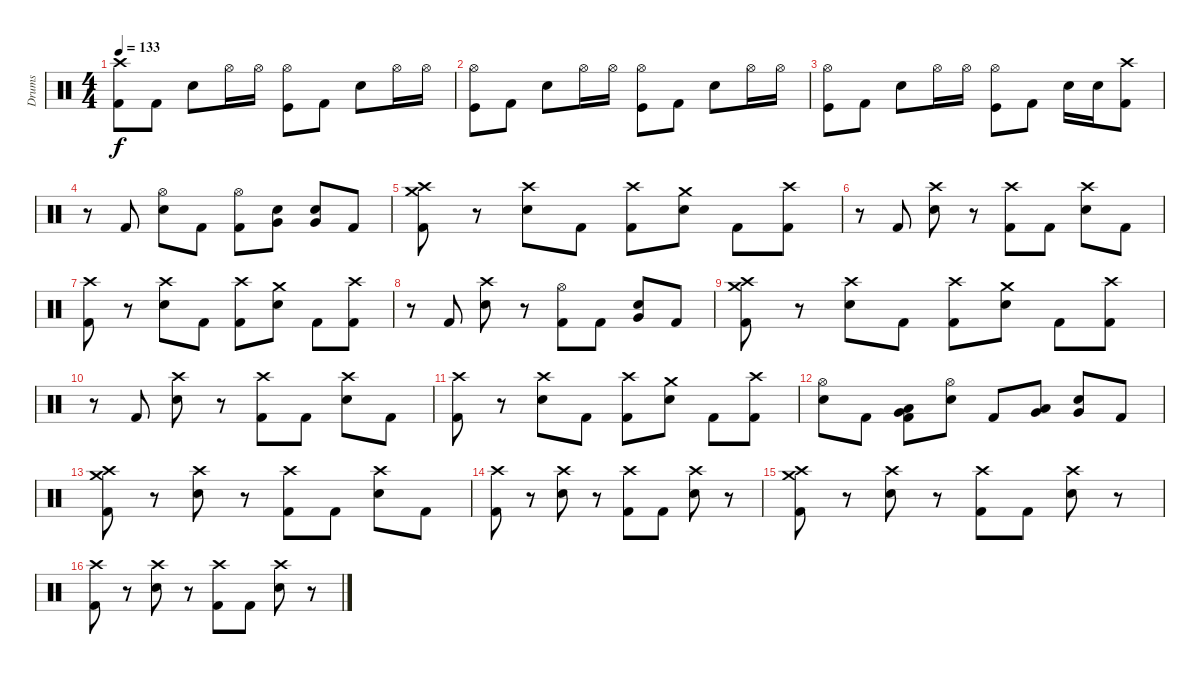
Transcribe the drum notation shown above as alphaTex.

\track ("Drums" "Drums") {instrument percussion}
\staff {score}
\articulation defaults
\ts (4 4)
\tempo 133
\clef neutral
\ks c
("Crash high (hit)" "Kick (hit) 2").8{dy f} "Kick (hit) 2".8 "Electric Snare (hit)".8 "Hi-Hat (open)".16 "Hi-Hat (open)".16 ("Hi-Hat (open)" "Kick (hit)").8 "Kick (hit) 2".8 "Electric Snare (hit)".8 "Hi-Hat (open)".16 "Hi-Hat (open)".16 |
("Hi-Hat (open)" "Kick (hit)").8 "Kick (hit) 2".8 "Electric Snare (hit)".8 "Hi-Hat (open)".16 "Hi-Hat (open)".16 ("Hi-Hat (open)" "Kick (hit)").8 "Kick (hit) 2".8 "Electric Snare (hit)".8 "Hi-Hat (open)".16 "Hi-Hat (open)".16 |
("Hi-Hat (open)" "Kick (hit)").8 "Kick (hit) 2".8 "Electric Snare (hit)".8 "Hi-Hat (open)".16 "Hi-Hat (open)".16 ("Hi-Hat (open)" "Kick (hit)").8 "Kick (hit) 2".8 "Electric Snare (hit)".16 "Electric Snare (hit)".16 ("Crash high (hit)" "Kick (hit) 2").8 |
r.8 "Kick (hit) 2".8 ("Hi-Hat (open)" "Electric Snare (hit)").8 "Kick (hit) 2".8 ("Hi-Hat (open)" "Kick (hit) 2").8 ("Very Low Tom (hit)" "Electric Snare (hit)").8 ("Very Low Tom (hit)" "Electric Snare (hit)").8 "Kick (hit) 2".8 |
("Crash high (hit)" "Crash medium (hit)" "Kick (hit) 2").8 r.8 ("Crash high (hit)" "Electric Snare (hit)").8 "Kick (hit) 2".8 ("Crash high (hit)" "Kick (hit) 2").8 ("Crash medium (hit)" "Electric Snare (hit)").8 "Kick (hit) 2".8 ("Crash high (hit)" "Kick (hit) 2").8 |
r.8 "Kick (hit) 2".8 ("Crash high (hit)" "Electric Snare (hit)").8 r.8 ("Crash high (hit)" "Kick (hit) 2").8 "Kick (hit) 2".8 ("Crash high (hit)" "Electric Snare (hit)").8 "Kick (hit) 2".8 |
("Crash high (hit)" "Kick (hit) 2").8 r.8 ("Crash high (hit)" "Electric Snare (hit)").8 "Kick (hit) 2".8 ("Crash high (hit)" "Kick (hit) 2").8 ("Crash medium (hit)" "Electric Snare (hit)").8 "Kick (hit) 2".8 ("Crash high (hit)" "Kick (hit) 2").8 |
r.8 "Kick (hit) 2".8 ("Crash high (hit)" "Electric Snare (hit)").8 r.8 ("Hi-Hat (open)" "Kick (hit) 2").8 "Kick (hit) 2".8 ("Very Low Tom (hit)" "Electric Snare (hit)").8 "Kick (hit) 2".8 |
("Crash high (hit)" "Crash medium (hit)" "Kick (hit) 2").8 r.8 ("Crash high (hit)" "Electric Snare (hit)").8 "Kick (hit) 2".8 ("Crash high (hit)" "Kick (hit) 2").8 ("Crash medium (hit)" "Electric Snare (hit)").8 "Kick (hit) 2".8 ("Crash high (hit)" "Kick (hit) 2").8 |
r.8 "Kick (hit) 2".8 ("Crash high (hit)" "Electric Snare (hit)").8 r.8 ("Crash high (hit)" "Kick (hit) 2").8 "Kick (hit) 2".8 ("Crash high (hit)" "Electric Snare (hit)").8 "Kick (hit) 2".8 |
("Crash high (hit)" "Kick (hit) 2").8 r.8 ("Crash high (hit)" "Electric Snare (hit)").8 "Kick (hit) 2".8 ("Crash high (hit)" "Kick (hit) 2").8 ("Crash medium (hit)" "Electric Snare (hit)").8 "Kick (hit) 2".8 ("Crash high (hit)" "Kick (hit) 2").8 |
("Hi-Hat (open)" "Electric Snare (hit)").8 "Kick (hit) 2".8 ("Low Tom (hit)" "Very Low Tom (hit)" "Kick (hit) 2").8 ("Hi-Hat (open)" "Electric Snare (hit)").8 "Kick (hit) 2".8 ("Very Low Tom (hit)" "Low Tom (hit)").8 ("Very Low Tom (hit)" "Electric Snare (hit)").8 "Kick (hit) 2".8 |
("Crash high (hit)" "Crash medium (hit)" "Kick (hit) 2").8 r.8 ("Crash high (hit)" "Electric Snare (hit)").8 r.8 ("Crash high (hit)" "Kick (hit) 2").8 "Kick (hit) 2".8 ("Crash high (hit)" "Electric Snare (hit)").8 "Kick (hit) 2".8 |
("Crash high (hit)" "Kick (hit) 2").8 r.8 ("Crash high (hit)" "Electric Snare (hit)").8 r.8 ("Crash high (hit)" "Kick (hit) 2").8 "Kick (hit) 2".8 ("Crash high (hit)" "Electric Snare (hit)").8 r.8 |
("Crash high (hit)" "Crash medium (hit)" "Kick (hit) 2").8 r.8 ("Crash high (hit)" "Electric Snare (hit)").8 r.8 ("Crash high (hit)" "Kick (hit) 2").8 "Kick (hit) 2".8 ("Crash high (hit)" "Electric Snare (hit)").8 r.8 |
("Crash high (hit)" "Kick (hit) 2").8 r.8 ("Crash high (hit)" "Electric Snare (hit)").8 r.8 ("Crash high (hit)" "Kick (hit) 2").8 "Kick (hit) 2".8 ("Crash high (hit)" "Electric Snare (hit)").8 r.8
